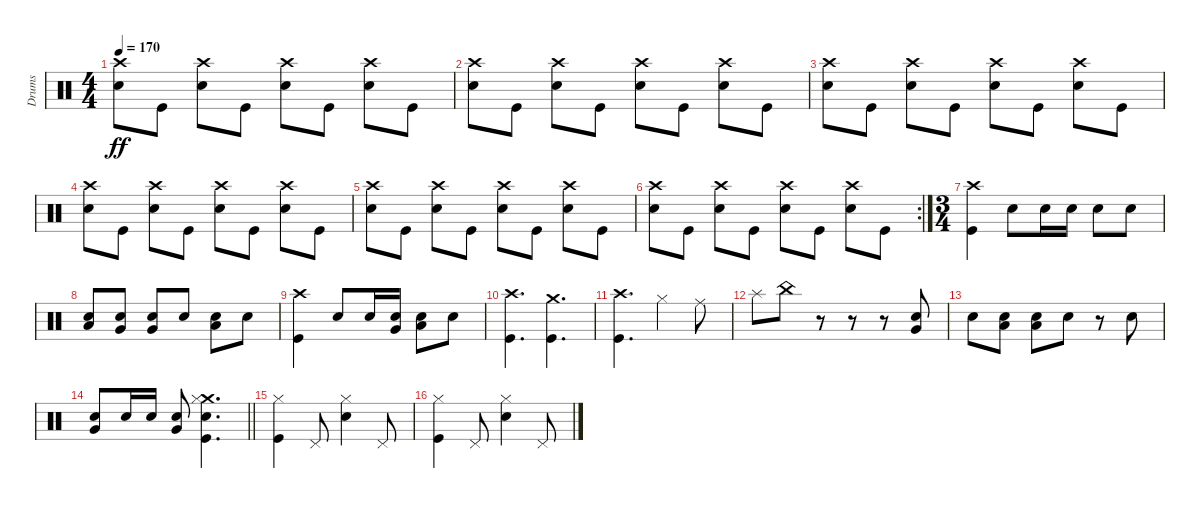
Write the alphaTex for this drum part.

\track ("Drums" "Drums") {instrument percussion}
\staff {score}
\articulation defaults
\ts (4 4)
\tempo 170
\clef neutral
\ks c
("Crash high (hit)" "Snare (hit) 2").8{dy ff} "Kick (hit)".8 ("Crash high (hit)" "Snare (hit) 2").8 "Kick (hit)".8 ("Crash high (hit)" "Snare (hit) 2").8 "Kick (hit)".8 ("Crash high (hit)" "Snare (hit) 2").8 "Kick (hit)".8 |
("Crash high (hit)" "Snare (hit) 2").8 "Kick (hit)".8 ("Crash high (hit)" "Snare (hit) 2").8 "Kick (hit)".8 ("Crash high (hit)" "Snare (hit) 2").8 "Kick (hit)".8 ("Crash high (hit)" "Snare (hit) 2").8 "Kick (hit)".8 |
("Crash high (hit)" "Snare (hit) 2").8 "Kick (hit)".8 ("Crash high (hit)" "Snare (hit) 2").8 "Kick (hit)".8 ("Crash high (hit)" "Snare (hit) 2").8 "Kick (hit)".8 ("Crash high (hit)" "Snare (hit) 2").8 "Kick (hit)".8 |
("Crash high (hit)" "Snare (hit) 2").8 "Kick (hit)".8 ("Crash high (hit)" "Snare (hit) 2").8 "Kick (hit)".8 ("Crash high (hit)" "Snare (hit) 2").8 "Kick (hit)".8 ("Crash high (hit)" "Snare (hit) 2").8 "Kick (hit)".8 |
("Crash high (hit)" "Snare (hit) 2").8 "Kick (hit)".8 ("Crash high (hit)" "Snare (hit) 2").8 "Kick (hit)".8 ("Crash high (hit)" "Snare (hit) 2").8 "Kick (hit)".8 ("Crash high (hit)" "Snare (hit) 2").8 "Kick (hit)".8 |
\rc 2
("Crash high (hit)" "Snare (hit) 2").8 "Kick (hit)".8 ("Crash high (hit)" "Snare (hit) 2").8 "Kick (hit)".8 ("Crash high (hit)" "Snare (hit) 2").8 "Kick (hit)".8 ("Crash high (hit)" "Snare (hit) 2").8 "Kick (hit)".8 |
\ts (3 4)
("Crash high (hit)" "Kick (hit)").4 "Snare (hit) 2".8 "Snare (hit) 2".16 "Snare (hit) 2".16 "Snare (hit) 2".8 "Snare (hit) 2".8 |
("Snare (hit) 2" "Low Tom (hit)").8 ("Snare (hit) 2" "Very Low Tom (hit)").8 ("Snare (hit) 2" "Very Low Tom (hit)").8 "Snare (hit) 2".8 ("Snare (hit) 2" "Low Tom (hit)").8 "Snare (hit) 2".8 |
("Crash high (hit)" "Kick (hit)").4 "Snare (hit) 2".8 "Snare (hit) 2".16 ("Snare (hit) 2" "Very Low Tom (hit)").16 ("Snare (hit) 2" "Low Tom (hit)").8 "Snare (hit) 2".8 |
("Crash high (hit)" "Kick (hit)").4{d} ("Crash medium (hit)" "Kick (hit)").4{d} |
("Crash high (hit)" "Kick (hit)").4{d} "Hi-Hat (closed)".4 "Ride (middle)".8 |
"Splash (hit)".8 "China (hit)".8 r.8 r.8 r.8 ("Snare (hit) 2" "Very Low Tom (hit)").8 |
"Snare (hit) 2".8 ("Snare (hit) 2" "Low Floor Tom (hit)").8 ("Snare (hit) 2" "Low Tom (hit)").8 "Snare (hit) 2".8 r.8 "Snare (hit) 2".8 |
\barLineRight lightlight
("Snare (hit) 2" "Very Low Tom (hit)").8 "Snare (hit) 2".16 "Snare (hit) 2".16 ("Snare (hit) 2" "Very Low Tom (hit)").8 ("Crash medium (hit)" "Hi-Hat (closed)" "Snare (hit) 2" "Kick (hit)").4{d} |
("Hi-Hat (closed)" "Kick (hit)").4 "Pedal Hi-Hat (hit)".8 ("Hi-Hat (closed)" "Snare (hit) 2").4 "Pedal Hi-Hat (hit)".8 |
("Hi-Hat (closed)" "Kick (hit)").4 "Pedal Hi-Hat (hit)".8 ("Hi-Hat (closed)" "Snare (hit) 2").4 "Pedal Hi-Hat (hit)".8
